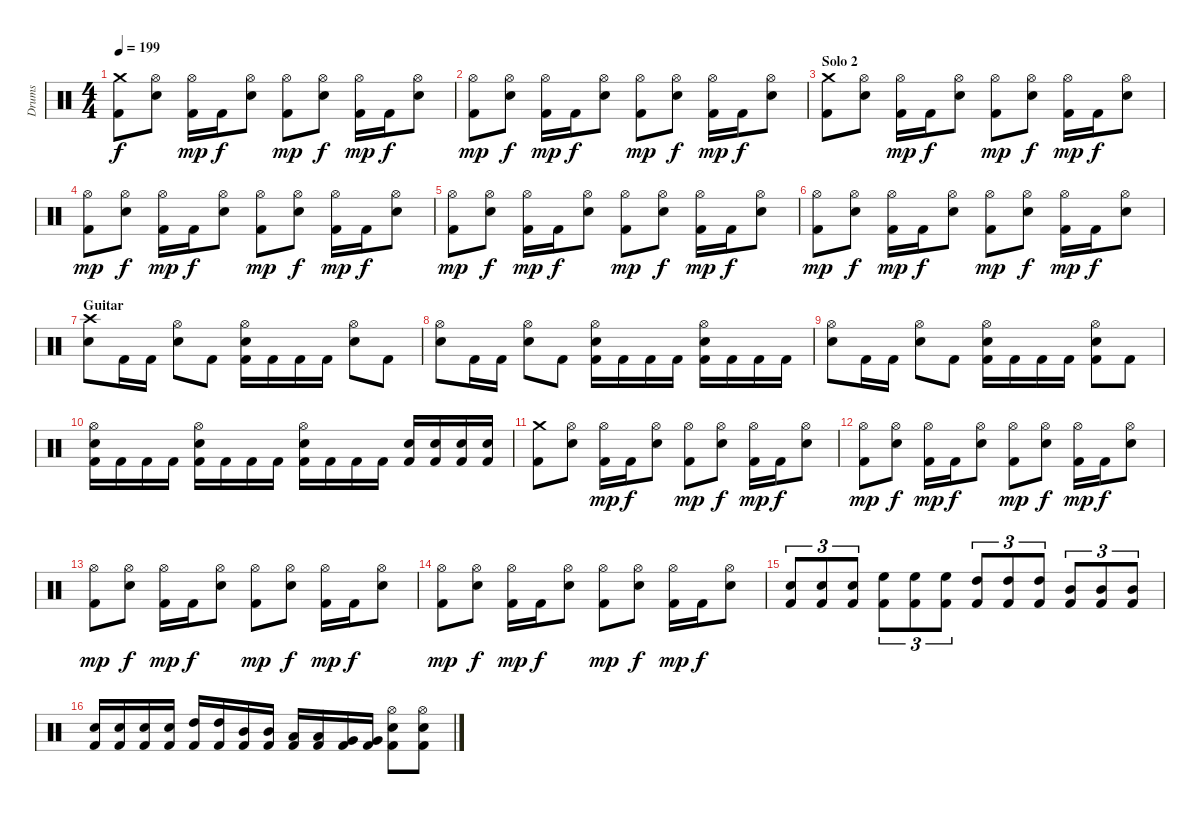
\track ("Drums" "Drums") {instrument percussion}
\staff {score}
\articulation defaults
\ts (4 4)
\tempo 199
\clef neutral
\ks c
("Kick (hit) 2" "Crash medium (hit)").8{dy f} ("Snare (hit) 2" "Hi-Hat (open)").8 ("Kick (hit) 2" "Hi-Hat (open)").16{dy mp} "Kick (hit) 2".16{dy f} ("Snare (hit) 2" "Hi-Hat (open)").8 ("Kick (hit) 2" "Hi-Hat (open)").8{dy mp} ("Snare (hit) 2" "Hi-Hat (open)").8{dy f} ("Kick (hit) 2" "Hi-Hat (open)").16{dy mp} "Kick (hit) 2".16{dy f} ("Snare (hit) 2" "Hi-Hat (open)").8 |
("Kick (hit) 2" "Hi-Hat (open)").8{dy mp} ("Snare (hit) 2" "Hi-Hat (open)").8{dy f} ("Kick (hit) 2" "Hi-Hat (open)").16{dy mp} "Kick (hit) 2".16{dy f} ("Snare (hit) 2" "Hi-Hat (open)").8 ("Kick (hit) 2" "Hi-Hat (open)").8{dy mp} ("Snare (hit) 2" "Hi-Hat (open)").8{dy f} ("Kick (hit) 2" "Hi-Hat (open)").16{dy mp} "Kick (hit) 2".16{dy f} ("Snare (hit) 2" "Hi-Hat (open)").8 |
\section ("" "Solo 2")
("Kick (hit) 2" "Crash medium (hit)").8 ("Snare (hit) 2" "Hi-Hat (open)").8 ("Kick (hit) 2" "Hi-Hat (open)").16{dy mp} "Kick (hit) 2".16{dy f} ("Snare (hit) 2" "Hi-Hat (open)").8 ("Kick (hit) 2" "Hi-Hat (open)").8{dy mp} ("Snare (hit) 2" "Hi-Hat (open)").8{dy f} ("Kick (hit) 2" "Hi-Hat (open)").16{dy mp} "Kick (hit) 2".16{dy f} ("Snare (hit) 2" "Hi-Hat (open)").8 |
("Kick (hit) 2" "Hi-Hat (open)").8{dy mp} ("Snare (hit) 2" "Hi-Hat (open)").8{dy f} ("Kick (hit) 2" "Hi-Hat (open)").16{dy mp} "Kick (hit) 2".16{dy f} ("Snare (hit) 2" "Hi-Hat (open)").8 ("Kick (hit) 2" "Hi-Hat (open)").8{dy mp} ("Snare (hit) 2" "Hi-Hat (open)").8{dy f} ("Kick (hit) 2" "Hi-Hat (open)").16{dy mp} "Kick (hit) 2".16{dy f} ("Snare (hit) 2" "Hi-Hat (open)").8 |
("Kick (hit) 2" "Hi-Hat (open)").8{dy mp} ("Snare (hit) 2" "Hi-Hat (open)").8{dy f} ("Kick (hit) 2" "Hi-Hat (open)").16{dy mp} "Kick (hit) 2".16{dy f} ("Snare (hit) 2" "Hi-Hat (open)").8 ("Kick (hit) 2" "Hi-Hat (open)").8{dy mp} ("Snare (hit) 2" "Hi-Hat (open)").8{dy f} ("Kick (hit) 2" "Hi-Hat (open)").16{dy mp} "Kick (hit) 2".16{dy f} ("Snare (hit) 2" "Hi-Hat (open)").8 |
("Kick (hit) 2" "Hi-Hat (open)").8{dy mp} ("Snare (hit) 2" "Hi-Hat (open)").8{dy f} ("Kick (hit) 2" "Hi-Hat (open)").16{dy mp} "Kick (hit) 2".16{dy f} ("Snare (hit) 2" "Hi-Hat (open)").8 ("Kick (hit) 2" "Hi-Hat (open)").8{dy mp} ("Snare (hit) 2" "Hi-Hat (open)").8{dy f} ("Kick (hit) 2" "Hi-Hat (open)").16{dy mp} "Kick (hit) 2".16{dy f} ("Snare (hit) 2" "Hi-Hat (open)").8 |
\section ("" "Guitar")
("Snare (hit) 2" "Crash high (hit)").8 "Kick (hit) 2".16 "Kick (hit) 2".16 ("Snare (hit) 2" "Hi-Hat (open)").8 "Kick (hit) 2".8 ("Kick (hit) 2" "Snare (hit) 2" "Hi-Hat (open)").16 "Kick (hit) 2".16 "Kick (hit) 2".16 "Kick (hit) 2".16 ("Snare (hit) 2" "Hi-Hat (open)").8 "Kick (hit) 2".8 |
("Snare (hit) 2" "Hi-Hat (open)").8 "Kick (hit) 2".16 "Kick (hit) 2".16 ("Snare (hit) 2" "Hi-Hat (open)").8 "Kick (hit) 2".8 ("Kick (hit) 2" "Snare (hit) 2" "Hi-Hat (open)").16 "Kick (hit) 2".16 "Kick (hit) 2".16 "Kick (hit) 2".16 ("Kick (hit) 2" "Snare (hit) 2" "Hi-Hat (open)").16 "Kick (hit) 2".16 "Kick (hit) 2".16 "Kick (hit) 2".16 |
("Snare (hit) 2" "Hi-Hat (open)").8 "Kick (hit) 2".16 "Kick (hit) 2".16 ("Snare (hit) 2" "Hi-Hat (open)").8 "Kick (hit) 2".8 ("Kick (hit) 2" "Snare (hit) 2" "Hi-Hat (open)").16 "Kick (hit) 2".16 "Kick (hit) 2".16 "Kick (hit) 2".16 ("Kick (hit) 2" "Snare (hit) 2" "Hi-Hat (open)").8 "Kick (hit) 2".8 |
("Kick (hit) 2" "Snare (hit) 2" "Hi-Hat (open)").16 "Kick (hit) 2".16 "Kick (hit) 2".16 "Kick (hit) 2".16 ("Kick (hit) 2" "Snare (hit) 2" "Hi-Hat (open)").16 "Kick (hit) 2".16 "Kick (hit) 2".16 "Kick (hit) 2".16 ("Kick (hit) 2" "Snare (hit) 2" "Hi-Hat (open)").16 "Kick (hit) 2".16 "Kick (hit) 2".16 "Kick (hit) 2".16 ("Kick (hit) 2" "Snare (hit) 2").16 ("Kick (hit) 2" "Snare (hit) 2").16 ("Kick (hit) 2" "Snare (hit) 2").16 ("Kick (hit) 2" "Snare (hit) 2").16 |
\section ("" "")
("Kick (hit) 2" "Crash medium (hit)").8 ("Snare (hit) 2" "Hi-Hat (open)").8 ("Kick (hit) 2" "Hi-Hat (open)").16{dy mp} "Kick (hit) 2".16{dy f} ("Snare (hit) 2" "Hi-Hat (open)").8 ("Kick (hit) 2" "Hi-Hat (open)").8{dy mp} ("Snare (hit) 2" "Hi-Hat (open)").8{dy f} ("Kick (hit) 2" "Hi-Hat (open)").16{dy mp} "Kick (hit) 2".16{dy f} ("Snare (hit) 2" "Hi-Hat (open)").8 |
("Kick (hit) 2" "Hi-Hat (open)").8{dy mp} ("Snare (hit) 2" "Hi-Hat (open)").8{dy f} ("Kick (hit) 2" "Hi-Hat (open)").16{dy mp} "Kick (hit) 2".16{dy f} ("Snare (hit) 2" "Hi-Hat (open)").8 ("Kick (hit) 2" "Hi-Hat (open)").8{dy mp} ("Snare (hit) 2" "Hi-Hat (open)").8{dy f} ("Kick (hit) 2" "Hi-Hat (open)").16{dy mp} "Kick (hit) 2".16{dy f} ("Snare (hit) 2" "Hi-Hat (open)").8 |
("Kick (hit) 2" "Hi-Hat (open)").8{dy mp} ("Snare (hit) 2" "Hi-Hat (open)").8{dy f} ("Kick (hit) 2" "Hi-Hat (open)").16{dy mp} "Kick (hit) 2".16{dy f} ("Snare (hit) 2" "Hi-Hat (open)").8 ("Kick (hit) 2" "Hi-Hat (open)").8{dy mp} ("Snare (hit) 2" "Hi-Hat (open)").8{dy f} ("Kick (hit) 2" "Hi-Hat (open)").16{dy mp} "Kick (hit) 2".16{dy f} ("Snare (hit) 2" "Hi-Hat (open)").8 |
("Kick (hit) 2" "Hi-Hat (open)").8{dy mp} ("Snare (hit) 2" "Hi-Hat (open)").8{dy f} ("Kick (hit) 2" "Hi-Hat (open)").16{dy mp} "Kick (hit) 2".16{dy f} ("Snare (hit) 2" "Hi-Hat (open)").8 ("Kick (hit) 2" "Hi-Hat (open)").8{dy mp} ("Snare (hit) 2" "Hi-Hat (open)").8{dy f} ("Kick (hit) 2" "Hi-Hat (open)").16{dy mp} "Kick (hit) 2".16{dy f} ("Snare (hit) 2" "Hi-Hat (open)").8 |
("Kick (hit) 2" "Snare (hit) 2").8{tu (3 2)} ("Kick (hit) 2" "Snare (hit) 2").8{tu (3 2)} ("Kick (hit) 2" "Snare (hit) 2").8{tu (3 2)} ("Kick (hit) 2" "High Floor Tom (hit)").8{tu (3 2)} ("Kick (hit) 2" "High Floor Tom (hit)").8{tu (3 2)} ("Kick (hit) 2" "High Floor Tom (hit)").8{tu (3 2)} ("Kick (hit) 2" "High Tom (hit)").8{tu (3 2)} ("Kick (hit) 2" "High Tom (hit)").8{tu (3 2)} ("Kick (hit) 2" "High Tom (hit)").8{tu (3 2)} ("Kick (hit) 2" "Mid Tom (hit)").8{tu (3 2)} ("Kick (hit) 2" "Mid Tom (hit)").8{tu (3 2)} ("Kick (hit) 2" "Mid Tom (hit)").8{tu (3 2)} |
("Kick (hit) 2" "Snare (hit) 2").16 ("Kick (hit) 2" "Snare (hit) 2").16 ("Kick (hit) 2" "Snare (hit) 2").16 ("Kick (hit) 2" "Snare (hit) 2").16 ("Kick (hit) 2" "High Tom (hit)").16 ("Kick (hit) 2" "High Tom (hit)").16 ("Kick (hit) 2" "Mid Tom (hit)").16 ("Kick (hit) 2" "Mid Tom (hit)").16 ("Kick (hit) 2" "Low Tom (hit)").16 ("Kick (hit) 2" "Low Tom (hit)").16 ("Kick (hit) 2" "Very Low Tom (hit)").16 ("Kick (hit) 2" "Very Low Tom (hit)").16 ("Kick (hit) 2" "Snare (hit) 2" "Hi-Hat (open)").8 ("Kick (hit) 2" "Snare (hit) 2" "Hi-Hat (open)").8
